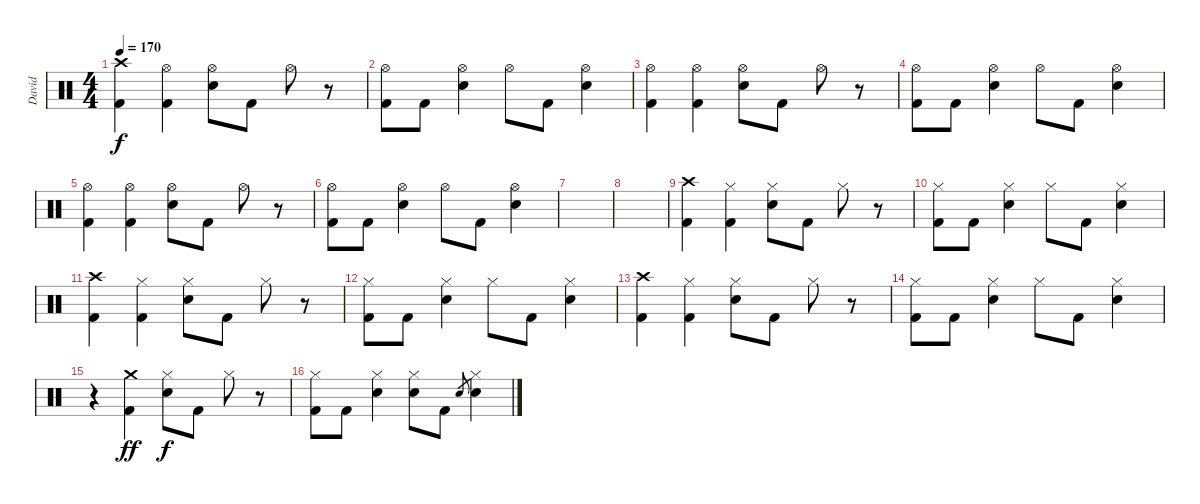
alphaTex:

\track ("David" "David") {instrument percussion}
\staff {score}
\articulation defaults
\ts (4 4)
\tempo 170
\clef neutral
\ks c
("Crash high (hit)" "Kick (hit) 2").4{dy f} ("Hi-Hat (open)" "Kick (hit) 2").4 ("Hi-Hat (open)" "Snare (hit) 2").8 "Kick (hit) 2".8 "Hi-Hat (open)".8 r.8 |
("Hi-Hat (open)" "Kick (hit) 2").8 "Kick (hit) 2".8 ("Hi-Hat (open)" "Snare (hit) 2").4 "Hi-Hat (open)".8 "Kick (hit) 2".8 ("Hi-Hat (open)" "Snare (hit) 2").4 |
("Hi-Hat (open)" "Kick (hit) 2").4 ("Hi-Hat (open)" "Kick (hit) 2").4 ("Hi-Hat (open)" "Snare (hit) 2").8 "Kick (hit) 2".8 "Hi-Hat (open)".8 r.8 |
("Hi-Hat (open)" "Kick (hit) 2").8 "Kick (hit) 2".8 ("Hi-Hat (open)" "Snare (hit) 2").4 "Hi-Hat (open)".8 "Kick (hit) 2".8 ("Hi-Hat (open)" "Snare (hit) 2").4 |
("Hi-Hat (open)" "Kick (hit) 2").4 ("Hi-Hat (open)" "Kick (hit) 2").4 ("Hi-Hat (open)" "Snare (hit) 2").8 "Kick (hit) 2".8 "Hi-Hat (open)".8 r.8 |
("Hi-Hat (open)" "Kick (hit) 2").8 "Kick (hit) 2".8 ("Hi-Hat (open)" "Snare (hit) 2").4 "Hi-Hat (open)".8 "Kick (hit) 2".8 ("Hi-Hat (open)" "Snare (hit) 2").4 |
|
|
("Crash high (hit)" "Kick (hit) 2").4 ("Hi-Hat (closed)" "Kick (hit) 2").4 ("Hi-Hat (closed)" "Snare (hit) 2").8 "Kick (hit) 2".8 "Hi-Hat (closed)".8 r.8 |
("Hi-Hat (closed)" "Kick (hit) 2").8 "Kick (hit) 2".8 ("Hi-Hat (closed)" "Snare (hit) 2").4 "Hi-Hat (closed)".8 "Kick (hit) 2".8 ("Hi-Hat (closed)" "Snare (hit) 2").4 |
("Crash high (hit)" "Kick (hit) 2").4 ("Hi-Hat (closed)" "Kick (hit) 2").4 ("Hi-Hat (closed)" "Snare (hit) 2").8 "Kick (hit) 2".8 "Hi-Hat (closed)".8 r.8 |
("Hi-Hat (closed)" "Kick (hit) 2").8 "Kick (hit) 2".8 ("Hi-Hat (closed)" "Snare (hit) 2").4 "Hi-Hat (closed)".8 "Kick (hit) 2".8 ("Hi-Hat (closed)" "Snare (hit) 2").4 |
("Crash high (hit)" "Kick (hit) 2").4 ("Hi-Hat (closed)" "Kick (hit) 2").4 ("Hi-Hat (closed)" "Snare (hit) 2").8 "Kick (hit) 2".8 "Hi-Hat (closed)".8 r.8 |
("Hi-Hat (closed)" "Kick (hit) 2").8 "Kick (hit) 2".8 ("Hi-Hat (closed)" "Snare (hit) 2").4 "Hi-Hat (closed)".8 "Kick (hit) 2".8 ("Hi-Hat (closed)" "Snare (hit) 2").4 |
r.4 ("Crash medium (hit)" "Kick (hit) 2").4{dy ff} ("Hi-Hat (closed)" "Snare (hit) 2").8{dy f} "Kick (hit) 2".8 "Hi-Hat (closed)".8 r.8 |
("Hi-Hat (closed)" "Kick (hit) 2").8 "Kick (hit) 2".8 ("Hi-Hat (closed)" "Snare (hit) 2").4 ("Hi-Hat (closed)" "Snare (hit) 2").8 "Kick (hit) 2".8 "Snare (hit) 2".8{gr} ("Hi-Hat (closed)" "Snare (hit) 2").4
